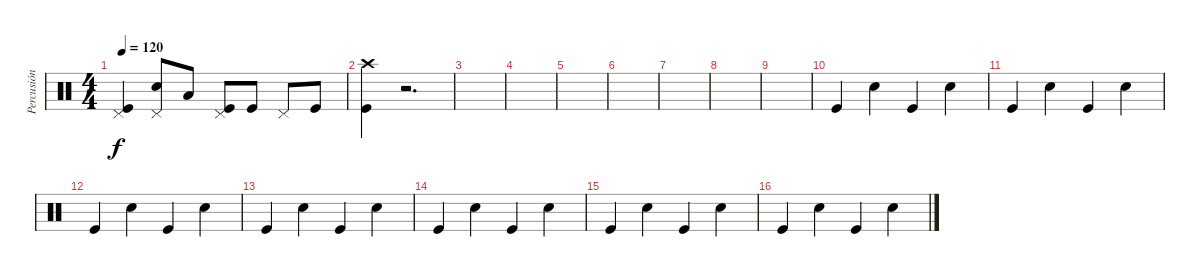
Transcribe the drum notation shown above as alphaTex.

\track ("Percusión" "Percusión") {instrument percussion}
\staff {score}
\articulation defaults
\ts (4 4)
\tempo 120
\clef neutral
\ks c
("Kick (hit)" "Pedal Hi-Hat (hit)").4{dy f} ("Snare (hit) 2" "Pedal Hi-Hat (hit)").8 "Low Tom (hit)".8 ("Kick (hit)" "Pedal Hi-Hat (hit)").8 "Kick (hit)".8 "Pedal Hi-Hat (hit)".8 "Kick (hit)".8 |
("Crash high (hit)" "Kick (hit)").4 r.2{d} |
|
|
|
|
|
|
|
"Kick (hit)".4 "Snare (hit) 2".4 "Kick (hit)".4 "Snare (hit) 2".4 |
"Kick (hit)".4 "Snare (hit) 2".4 "Kick (hit)".4 "Snare (hit) 2".4 |
"Kick (hit)".4 "Snare (hit) 2".4 "Kick (hit)".4 "Snare (hit) 2".4 |
"Kick (hit)".4 "Snare (hit) 2".4 "Kick (hit)".4 "Snare (hit) 2".4 |
"Kick (hit)".4 "Snare (hit) 2".4 "Kick (hit)".4 "Snare (hit) 2".4 |
"Kick (hit)".4 "Snare (hit) 2".4 "Kick (hit)".4 "Snare (hit) 2".4 |
"Kick (hit)".4 "Snare (hit) 2".4 "Kick (hit)".4 "Snare (hit) 2".4
